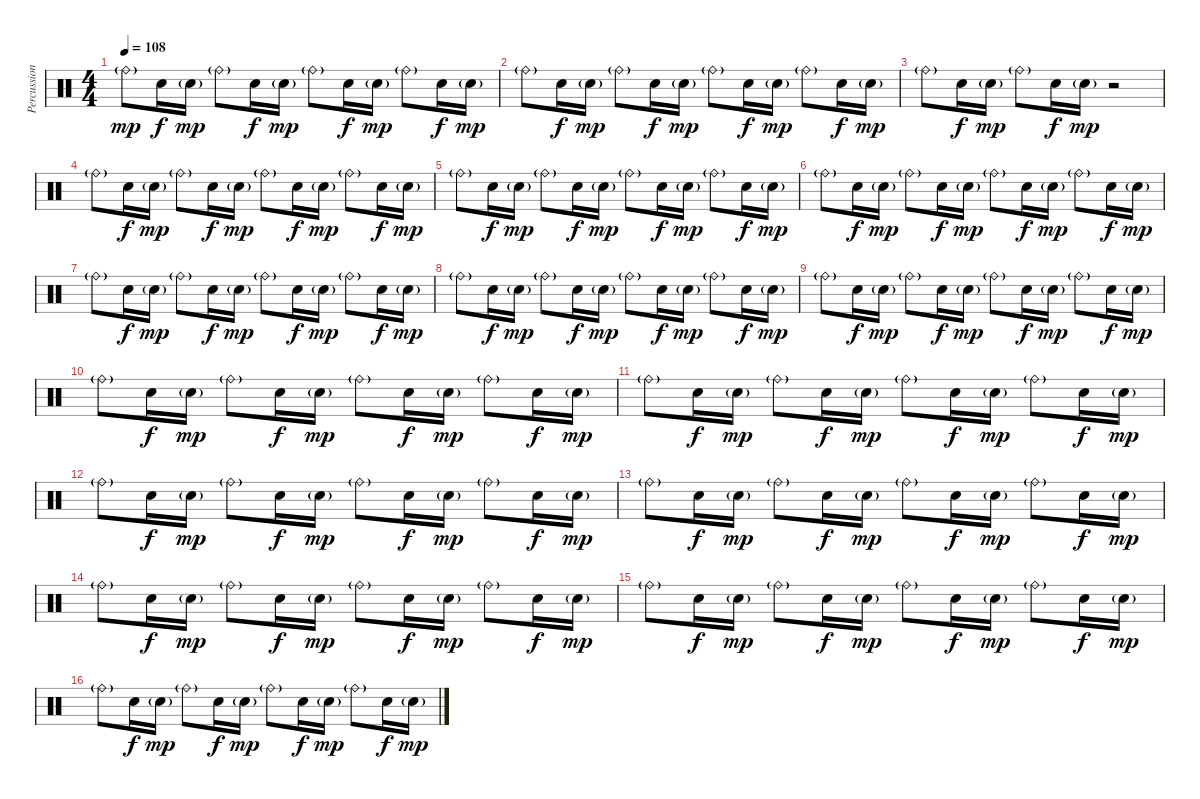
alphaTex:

\track ("Percussioni" "Percussion") {instrument percussion}
\staff {score}
\articulation defaults
\ts (4 4)
\tempo 108
\clef neutral
\ks c "Ride (bell)"{g}.8{dy mp} "Snare (hit) 2".16{dy f} "Snare (hit) 2"{g}.16{dy mp} "Ride (bell)"{g}.8 "Snare (hit) 2".16{dy f} "Snare (hit) 2"{g}.16{dy mp} "Ride (bell)"{g}.8 "Snare (hit) 2".16{dy f} "Snare (hit) 2"{g}.16{dy mp} "Ride (bell)"{g}.8 "Snare (hit) 2".16{dy f} "Snare (hit) 2"{g}.16{dy mp}
|
"Ride (bell)"{g}.8 "Snare (hit) 2".16{dy f} "Snare (hit) 2"{g}.16{dy mp} "Ride (bell)"{g}.8 "Snare (hit) 2".16{dy f} "Snare (hit) 2"{g}.16{dy mp} "Ride (bell)"{g}.8 "Snare (hit) 2".16{dy f} "Snare (hit) 2"{g}.16{dy mp} "Ride (bell)"{g}.8 "Snare (hit) 2".16{dy f} "Snare (hit) 2"{g}.16{dy mp} |
"Ride (bell)"{g}.8 "Snare (hit) 2".16{dy f} "Snare (hit) 2"{g}.16{dy mp} "Ride (bell)"{g}.8 "Snare (hit) 2".16{dy f} "Snare (hit) 2"{g}.16{dy mp} r.2 |
"Ride (bell)"{g}.8 "Snare (hit) 2".16{dy f} "Snare (hit) 2"{g}.16{dy mp} "Ride (bell)"{g}.8 "Snare (hit) 2".16{dy f} "Snare (hit) 2"{g}.16{dy mp} "Ride (bell)"{g}.8 "Snare (hit) 2".16{dy f} "Snare (hit) 2"{g}.16{dy mp} "Ride (bell)"{g}.8 "Snare (hit) 2".16{dy f} "Snare (hit) 2"{g}.16{dy mp} |
"Ride (bell)"{g}.8 "Snare (hit) 2".16{dy f} "Snare (hit) 2"{g}.16{dy mp} "Ride (bell)"{g}.8 "Snare (hit) 2".16{dy f} "Snare (hit) 2"{g}.16{dy mp} "Ride (bell)"{g}.8 "Snare (hit) 2".16{dy f} "Snare (hit) 2"{g}.16{dy mp} "Ride (bell)"{g}.8 "Snare (hit) 2".16{dy f} "Snare (hit) 2"{g}.16{dy mp} |
"Ride (bell)"{g}.8 "Snare (hit) 2".16{dy f} "Snare (hit) 2"{g}.16{dy mp} "Ride (bell)"{g}.8 "Snare (hit) 2".16{dy f} "Snare (hit) 2"{g}.16{dy mp} "Ride (bell)"{g}.8 "Snare (hit) 2".16{dy f} "Snare (hit) 2"{g}.16{dy mp} "Ride (bell)"{g}.8 "Snare (hit) 2".16{dy f} "Snare (hit) 2"{g}.16{dy mp} |
"Ride (bell)"{g}.8 "Snare (hit) 2".16{dy f} "Snare (hit) 2"{g}.16{dy mp} "Ride (bell)"{g}.8 "Snare (hit) 2".16{dy f} "Snare (hit) 2"{g}.16{dy mp} "Ride (bell)"{g}.8 "Snare (hit) 2".16{dy f} "Snare (hit) 2"{g}.16{dy mp} "Ride (bell)"{g}.8 "Snare (hit) 2".16{dy f} "Snare (hit) 2"{g}.16{dy mp} |
"Ride (bell)"{g}.8 "Snare (hit) 2".16{dy f} "Snare (hit) 2"{g}.16{dy mp} "Ride (bell)"{g}.8 "Snare (hit) 2".16{dy f} "Snare (hit) 2"{g}.16{dy mp} "Ride (bell)"{g}.8 "Snare (hit) 2".16{dy f} "Snare (hit) 2"{g}.16{dy mp} "Ride (bell)"{g}.8 "Snare (hit) 2".16{dy f} "Snare (hit) 2"{g}.16{dy mp} |
"Ride (bell)"{g}.8 "Snare (hit) 2".16{dy f} "Snare (hit) 2"{g}.16{dy mp} "Ride (bell)"{g}.8 "Snare (hit) 2".16{dy f} "Snare (hit) 2"{g}.16{dy mp} "Ride (bell)"{g}.8 "Snare (hit) 2".16{dy f} "Snare (hit) 2"{g}.16{dy mp} "Ride (bell)"{g}.8 "Snare (hit) 2".16{dy f} "Snare (hit) 2"{g}.16{dy mp} |
"Ride (bell)"{g}.8 "Snare (hit) 2".16{dy f} "Snare (hit) 2"{g}.16{dy mp} "Ride (bell)"{g}.8 "Snare (hit) 2".16{dy f} "Snare (hit) 2"{g}.16{dy mp} "Ride (bell)"{g}.8 "Snare (hit) 2".16{dy f} "Snare (hit) 2"{g}.16{dy mp} "Ride (bell)"{g}.8 "Snare (hit) 2".16{dy f} "Snare (hit) 2"{g}.16{dy mp} |
"Ride (bell)"{g}.8 "Snare (hit) 2".16{dy f} "Snare (hit) 2"{g}.16{dy mp} "Ride (bell)"{g}.8 "Snare (hit) 2".16{dy f} "Snare (hit) 2"{g}.16{dy mp} "Ride (bell)"{g}.8 "Snare (hit) 2".16{dy f} "Snare (hit) 2"{g}.16{dy mp} "Ride (bell)"{g}.8 "Snare (hit) 2".16{dy f} "Snare (hit) 2"{g}.16{dy mp} |
"Ride (bell)"{g}.8 "Snare (hit) 2".16{dy f} "Snare (hit) 2"{g}.16{dy mp} "Ride (bell)"{g}.8 "Snare (hit) 2".16{dy f} "Snare (hit) 2"{g}.16{dy mp} "Ride (bell)"{g}.8 "Snare (hit) 2".16{dy f} "Snare (hit) 2"{g}.16{dy mp} "Ride (bell)"{g}.8 "Snare (hit) 2".16{dy f} "Snare (hit) 2"{g}.16{dy mp} |
"Ride (bell)"{g}.8 "Snare (hit) 2".16{dy f} "Snare (hit) 2"{g}.16{dy mp} "Ride (bell)"{g}.8 "Snare (hit) 2".16{dy f} "Snare (hit) 2"{g}.16{dy mp} "Ride (bell)"{g}.8 "Snare (hit) 2".16{dy f} "Snare (hit) 2"{g}.16{dy mp} "Ride (bell)"{g}.8 "Snare (hit) 2".16{dy f} "Snare (hit) 2"{g}.16{dy mp} |
"Ride (bell)"{g}.8 "Snare (hit) 2".16{dy f} "Snare (hit) 2"{g}.16{dy mp} "Ride (bell)"{g}.8 "Snare (hit) 2".16{dy f} "Snare (hit) 2"{g}.16{dy mp} "Ride (bell)"{g}.8 "Snare (hit) 2".16{dy f} "Snare (hit) 2"{g}.16{dy mp} "Ride (bell)"{g}.8 "Snare (hit) 2".16{dy f} "Snare (hit) 2"{g}.16{dy mp} |
"Ride (bell)"{g}.8 "Snare (hit) 2".16{dy f} "Snare (hit) 2"{g}.16{dy mp} "Ride (bell)"{g}.8 "Snare (hit) 2".16{dy f} "Snare (hit) 2"{g}.16{dy mp} "Ride (bell)"{g}.8 "Snare (hit) 2".16{dy f} "Snare (hit) 2"{g}.16{dy mp} "Ride (bell)"{g}.8 "Snare (hit) 2".16{dy f} "Snare (hit) 2"{g}.16{dy mp} |
"Ride (bell)"{g}.8 "Snare (hit) 2".16{dy f} "Snare (hit) 2"{g}.16{dy mp} "Ride (bell)"{g}.8 "Snare (hit) 2".16{dy f} "Snare (hit) 2"{g}.16{dy mp} "Ride (bell)"{g}.8 "Snare (hit) 2".16{dy f} "Snare (hit) 2"{g}.16{dy mp} "Ride (bell)"{g}.8 "Snare (hit) 2".16{dy f} "Snare (hit) 2"{g}.16{dy mp}
